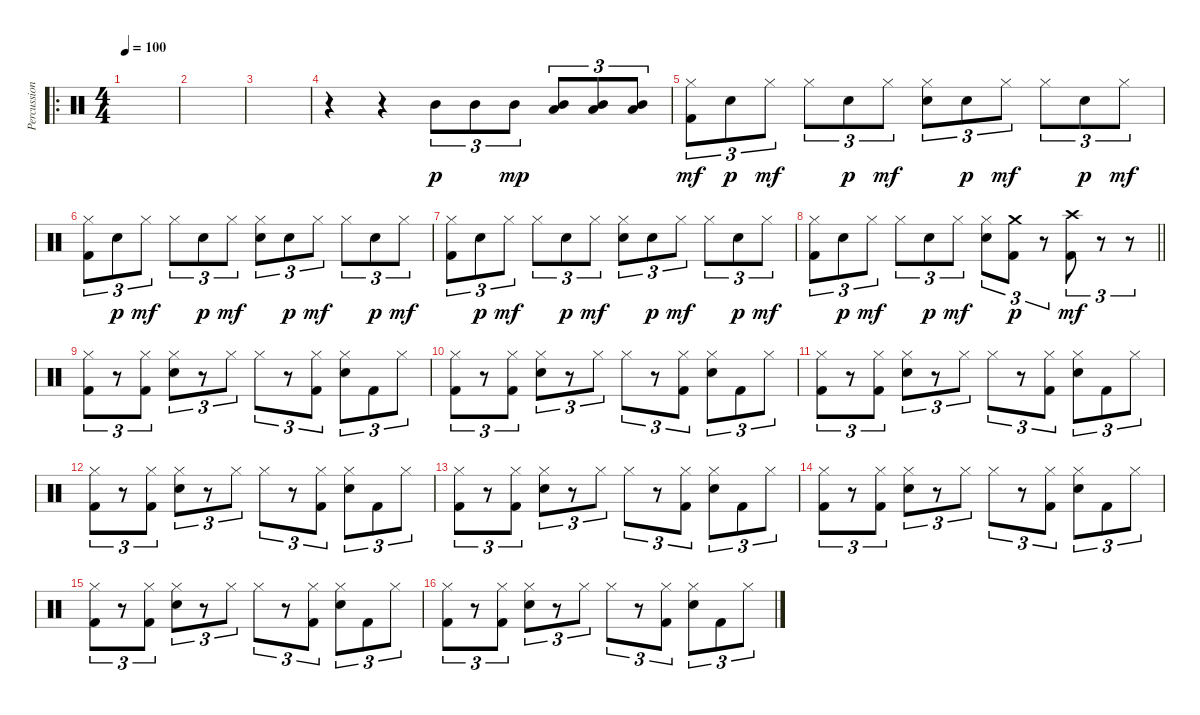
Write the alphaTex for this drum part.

\track ("Percussion" "Percussion") {instrument percussion}
\staff {score}
\articulation defaults
\ro
\ts (4 4)
\tempo 100
\clef neutral
\ks c
|
|
|
r.4 r.4 "Mid Tom (hit)".8{tu (3 2) dy p} "Mid Tom (hit)".8{tu (3 2)} "Mid Tom (hit)".8{tu (3 2) dy mp} ("Low Tom (hit)" "Mid Tom (hit)").8{tu (3 2)} ("Low Tom (hit)" "Mid Tom (hit)").8{tu (3 2)} ("Low Tom (hit)" "Mid Tom (hit)").8{tu (3 2)} |
("Kick (hit) 2" "Hi-Hat (closed)").8{tu (3 2) dy mf} "Snare (hit) 2".8{tu (3 2) dy p} "Hi-Hat (closed)".8{tu (3 2) dy mf} "Hi-Hat (closed)".8{tu (3 2)} "Snare (hit) 2".8{tu (3 2) dy p} "Hi-Hat (closed)".8{tu (3 2) dy mf} ("Snare (hit) 2" "Hi-Hat (closed)").8{tu (3 2)} "Snare (hit) 2".8{tu (3 2) dy p} "Hi-Hat (closed)".8{tu (3 2) dy mf} "Hi-Hat (closed)".8{tu (3 2)} "Snare (hit) 2".8{tu (3 2) dy p} "Hi-Hat (closed)".8{tu (3 2) dy mf} |
("Kick (hit) 2" "Hi-Hat (closed)").8{tu (3 2)} "Snare (hit) 2".8{tu (3 2) dy p} "Hi-Hat (closed)".8{tu (3 2) dy mf} "Hi-Hat (closed)".8{tu (3 2)} "Snare (hit) 2".8{tu (3 2) dy p} "Hi-Hat (closed)".8{tu (3 2) dy mf} ("Snare (hit) 2" "Hi-Hat (closed)").8{tu (3 2)} "Snare (hit) 2".8{tu (3 2) dy p} "Hi-Hat (closed)".8{tu (3 2) dy mf} "Hi-Hat (closed)".8{tu (3 2)} "Snare (hit) 2".8{tu (3 2) dy p} "Hi-Hat (closed)".8{tu (3 2) dy mf} |
("Kick (hit) 2" "Hi-Hat (closed)").8{tu (3 2)} "Snare (hit) 2".8{tu (3 2) dy p} "Hi-Hat (closed)".8{tu (3 2) dy mf} "Hi-Hat (closed)".8{tu (3 2)} "Snare (hit) 2".8{tu (3 2) dy p} "Hi-Hat (closed)".8{tu (3 2) dy mf} ("Snare (hit) 2" "Hi-Hat (closed)").8{tu (3 2)} "Snare (hit) 2".8{tu (3 2) dy p} "Hi-Hat (closed)".8{tu (3 2) dy mf} "Hi-Hat (closed)".8{tu (3 2)} "Snare (hit) 2".8{tu (3 2) dy p} "Hi-Hat (closed)".8{tu (3 2) dy mf} |
\barLineRight lightlight
("Kick (hit) 2" "Hi-Hat (closed)").8{tu (3 2)} "Snare (hit) 2".8{tu (3 2) dy p} "Hi-Hat (closed)".8{tu (3 2) dy mf} "Hi-Hat (closed)".8{tu (3 2)} "Snare (hit) 2".8{tu (3 2) dy p} "Hi-Hat (closed)".8{tu (3 2) dy mf} ("Snare (hit) 2" "Hi-Hat (closed)").8{tu (3 2)} ("Crash medium (hit)" "Kick (hit) 2").8{tu (3 2) dy p} r.8{tu (3 2)} ("Crash high (hit)" "Kick (hit) 2").8{tu (3 2) dy mf} r.8{tu (3 2)} r.8{tu (3 2)} |
("Kick (hit) 2" "Hi-Hat (closed)").8{tu (3 2)} r.8{tu (3 2)} ("Kick (hit) 2" "Hi-Hat (closed)").8{tu (3 2)} ("Snare (hit) 2" "Hi-Hat (closed)").8{tu (3 2)} r.8{tu (3 2)} "Hi-Hat (closed)".8{tu (3 2)} "Hi-Hat (closed)".8{tu (3 2)} r.8{tu (3 2)} ("Kick (hit) 2" "Hi-Hat (closed)").8{tu (3 2)} ("Snare (hit) 2" "Hi-Hat (closed)").8{tu (3 2)} "Kick (hit) 2".8{tu (3 2)} "Hi-Hat (closed)".8{tu (3 2)} |
("Kick (hit) 2" "Hi-Hat (closed)").8{tu (3 2)} r.8{tu (3 2)} ("Kick (hit) 2" "Hi-Hat (closed)").8{tu (3 2)} ("Snare (hit) 2" "Hi-Hat (closed)").8{tu (3 2)} r.8{tu (3 2)} "Hi-Hat (closed)".8{tu (3 2)} "Hi-Hat (closed)".8{tu (3 2)} r.8{tu (3 2)} ("Kick (hit) 2" "Hi-Hat (closed)").8{tu (3 2)} ("Snare (hit) 2" "Hi-Hat (closed)").8{tu (3 2)} "Kick (hit) 2".8{tu (3 2)} "Hi-Hat (closed)".8{tu (3 2)} |
("Kick (hit) 2" "Hi-Hat (closed)").8{tu (3 2)} r.8{tu (3 2)} ("Kick (hit) 2" "Hi-Hat (closed)").8{tu (3 2)} ("Snare (hit) 2" "Hi-Hat (closed)").8{tu (3 2)} r.8{tu (3 2)} "Hi-Hat (closed)".8{tu (3 2)} "Hi-Hat (closed)".8{tu (3 2)} r.8{tu (3 2)} ("Kick (hit) 2" "Hi-Hat (closed)").8{tu (3 2)} ("Snare (hit) 2" "Hi-Hat (closed)").8{tu (3 2)} "Kick (hit) 2".8{tu (3 2)} "Hi-Hat (closed)".8{tu (3 2)} |
("Kick (hit) 2" "Hi-Hat (closed)").8{tu (3 2)} r.8{tu (3 2)} ("Kick (hit) 2" "Hi-Hat (closed)").8{tu (3 2)} ("Snare (hit) 2" "Hi-Hat (closed)").8{tu (3 2)} r.8{tu (3 2)} "Hi-Hat (closed)".8{tu (3 2)} "Hi-Hat (closed)".8{tu (3 2)} r.8{tu (3 2)} ("Kick (hit) 2" "Hi-Hat (closed)").8{tu (3 2)} ("Snare (hit) 2" "Hi-Hat (closed)").8{tu (3 2)} "Kick (hit) 2".8{tu (3 2)} "Hi-Hat (closed)".8{tu (3 2)} |
("Kick (hit) 2" "Hi-Hat (closed)").8{tu (3 2)} r.8{tu (3 2)} ("Kick (hit) 2" "Hi-Hat (closed)").8{tu (3 2)} ("Snare (hit) 2" "Hi-Hat (closed)").8{tu (3 2)} r.8{tu (3 2)} "Hi-Hat (closed)".8{tu (3 2)} "Hi-Hat (closed)".8{tu (3 2)} r.8{tu (3 2)} ("Kick (hit) 2" "Hi-Hat (closed)").8{tu (3 2)} ("Snare (hit) 2" "Hi-Hat (closed)").8{tu (3 2)} "Kick (hit) 2".8{tu (3 2)} "Hi-Hat (closed)".8{tu (3 2)} |
("Kick (hit) 2" "Hi-Hat (closed)").8{tu (3 2)} r.8{tu (3 2)} ("Kick (hit) 2" "Hi-Hat (closed)").8{tu (3 2)} ("Snare (hit) 2" "Hi-Hat (closed)").8{tu (3 2)} r.8{tu (3 2)} "Hi-Hat (closed)".8{tu (3 2)} "Hi-Hat (closed)".8{tu (3 2)} r.8{tu (3 2)} ("Kick (hit) 2" "Hi-Hat (closed)").8{tu (3 2)} ("Snare (hit) 2" "Hi-Hat (closed)").8{tu (3 2)} "Kick (hit) 2".8{tu (3 2)} "Hi-Hat (closed)".8{tu (3 2)} |
("Kick (hit) 2" "Hi-Hat (closed)").8{tu (3 2)} r.8{tu (3 2)} ("Kick (hit) 2" "Hi-Hat (closed)").8{tu (3 2)} ("Snare (hit) 2" "Hi-Hat (closed)").8{tu (3 2)} r.8{tu (3 2)} "Hi-Hat (closed)".8{tu (3 2)} "Hi-Hat (closed)".8{tu (3 2)} r.8{tu (3 2)} ("Kick (hit) 2" "Hi-Hat (closed)").8{tu (3 2)} ("Snare (hit) 2" "Hi-Hat (closed)").8{tu (3 2)} "Kick (hit) 2".8{tu (3 2)} "Hi-Hat (closed)".8{tu (3 2)} |
("Kick (hit) 2" "Hi-Hat (closed)").8{tu (3 2)} r.8{tu (3 2)} ("Kick (hit) 2" "Hi-Hat (closed)").8{tu (3 2)} ("Snare (hit) 2" "Hi-Hat (closed)").8{tu (3 2)} r.8{tu (3 2)} "Hi-Hat (closed)".8{tu (3 2)} "Hi-Hat (closed)".8{tu (3 2)} r.8{tu (3 2)} ("Kick (hit) 2" "Hi-Hat (closed)").8{tu (3 2)} ("Snare (hit) 2" "Hi-Hat (closed)").8{tu (3 2)} "Kick (hit) 2".8{tu (3 2)} "Hi-Hat (closed)".8{tu (3 2)}
